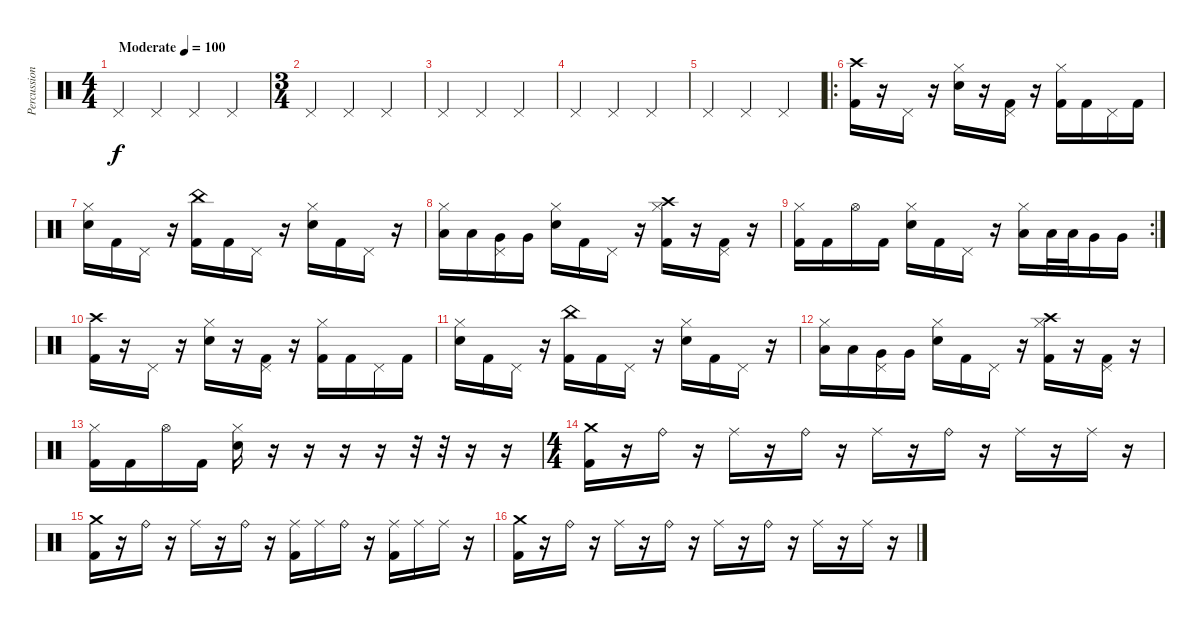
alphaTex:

\track ("Percussion" "Percussion") {instrument percussion}
\staff {score}
\articulation defaults
\ts (4 4)
\tempo (100 "Moderate")
\clef neutral
\ks c "Pedal Hi-Hat (hit)".4{dy f} "Pedal Hi-Hat (hit)".4 "Pedal Hi-Hat (hit)".4 "Pedal Hi-Hat (hit)".4
|
\ts (3 4)
"Pedal Hi-Hat (hit)".4 "Pedal Hi-Hat (hit)".4 "Pedal Hi-Hat (hit)".4 |
"Pedal Hi-Hat (hit)".4 "Pedal Hi-Hat (hit)".4 "Pedal Hi-Hat (hit)".4 |
"Pedal Hi-Hat (hit)".4 "Pedal Hi-Hat (hit)".4 "Pedal Hi-Hat (hit)".4 |
"Pedal Hi-Hat (hit)".4 "Pedal Hi-Hat (hit)".4 "Pedal Hi-Hat (hit)".4 |
\ro
("Kick (hit) 2" "Crash high (hit)").16 r.16 "Pedal Hi-Hat (hit)".16 r.16 ("Electric Snare (hit)" "Hi-Hat (closed)").16 r.16 ("Kick (hit) 2" "Pedal Hi-Hat (hit)").16 r.16 ("Kick (hit) 2" "Hi-Hat (closed)").16 "Kick (hit) 2".16 "Pedal Hi-Hat (hit)".16 "Kick (hit) 2".16 |
("Electric Snare (hit)" "Hi-Hat (closed)").16 "Kick (hit) 2".16 "Pedal Hi-Hat (hit)".16 r.16 ("Kick (hit) 2" "China (hit)").16 "Kick (hit) 2".16 "Pedal Hi-Hat (hit)".16 r.16 ("Electric Snare (hit)" "Hi-Hat (closed)").16 "Kick (hit) 2".16 "Pedal Hi-Hat (hit)".16 r.16 |
("Low Tom (hit)" "Hi-Hat (closed)").16 "Low Tom (hit)".16 ("Very Low Tom (hit)" "Pedal Hi-Hat (hit)").16 "Very Low Tom (hit)".16 ("Electric Snare (hit)" "Hi-Hat (closed)").16 "Kick (hit) 2".16 "Pedal Hi-Hat (hit)".16 r.16 ("Kick (hit) 2" "Hi-Hat (closed)" "Crash high (hit)").16 r.16 ("Kick (hit) 2" "Pedal Hi-Hat (hit)").16 r.16 |
\rc 2
("Kick (hit) 2" "Hi-Hat (closed)").16 "Kick (hit) 2".16 "Hi-Hat (open)".16 "Kick (hit) 2".16 ("Electric Snare (hit)" "Hi-Hat (closed)").16 "Kick (hit) 2".16 "Pedal Hi-Hat (hit)".16 r.16 ("Low Tom (hit)" "Hi-Hat (closed)").16 "Low Tom (hit)".32 "Low Tom (hit)".32 "Very Low Tom (hit)".16 "Very Low Tom (hit)".16 |
("Kick (hit) 2" "Crash high (hit)").16 r.16 "Pedal Hi-Hat (hit)".16 r.16 ("Electric Snare (hit)" "Hi-Hat (closed)").16 r.16 ("Kick (hit) 2" "Pedal Hi-Hat (hit)").16 r.16 ("Kick (hit) 2" "Hi-Hat (closed)").16 "Kick (hit) 2".16 "Pedal Hi-Hat (hit)".16 "Kick (hit) 2".16 |
("Electric Snare (hit)" "Hi-Hat (closed)").16 "Kick (hit) 2".16 "Pedal Hi-Hat (hit)".16 r.16 ("Kick (hit) 2" "China (hit)").16 "Kick (hit) 2".16 "Pedal Hi-Hat (hit)".16 r.16 ("Electric Snare (hit)" "Hi-Hat (closed)").16 "Kick (hit) 2".16 "Pedal Hi-Hat (hit)".16 r.16 |
("Low Tom (hit)" "Hi-Hat (closed)").16 "Low Tom (hit)".16 ("Very Low Tom (hit)" "Pedal Hi-Hat (hit)").16 "Very Low Tom (hit)".16 ("Electric Snare (hit)" "Hi-Hat (closed)").16 "Kick (hit) 2".16 "Pedal Hi-Hat (hit)".16 r.16 ("Kick (hit) 2" "Hi-Hat (closed)" "Crash high (hit)").16 r.16 ("Kick (hit) 2" "Pedal Hi-Hat (hit)").16 r.16 |
("Kick (hit) 2" "Hi-Hat (closed)").16 "Kick (hit) 2".16 "Hi-Hat (open)".16 "Kick (hit) 2".16 ("Electric Snare (hit)" "Hi-Hat (closed)").16 r.16 r.16 r.16 r.16 r.32 r.32 r.16 r.16 |
\ts (4 4)
("Kick (hit) 2" "Crash medium (hit)").16 r.16 "Ride (bell)".16 r.16 "Ride (middle)".16 r.16 "Ride (bell)".16 r.16 "Ride (middle)".16 r.16 "Ride (bell)".16 r.16 "Ride (middle)".16 r.16 "Ride (middle)".16 r.16 |
("Kick (hit) 2" "Crash medium (hit)").16 r.16 "Ride (bell)".16 r.16 "Ride (middle)".16 r.16 "Ride (bell)".16 r.16 ("Kick (hit) 2" "Ride (middle)").16 "Ride (middle)".16 "Ride (bell)".16 r.16 ("Kick (hit) 2" "Ride (middle)").16 "Ride (middle)".16 "Ride (middle)".16 r.16 |
("Kick (hit) 2" "Crash medium (hit)").16 r.16 "Ride (bell)".16 r.16 "Ride (middle)".16 r.16 "Ride (bell)".16 r.16 "Ride (middle)".16 r.16 "Ride (bell)".16 r.16 "Ride (middle)".16 r.16 "Ride (middle)".16 r.16
